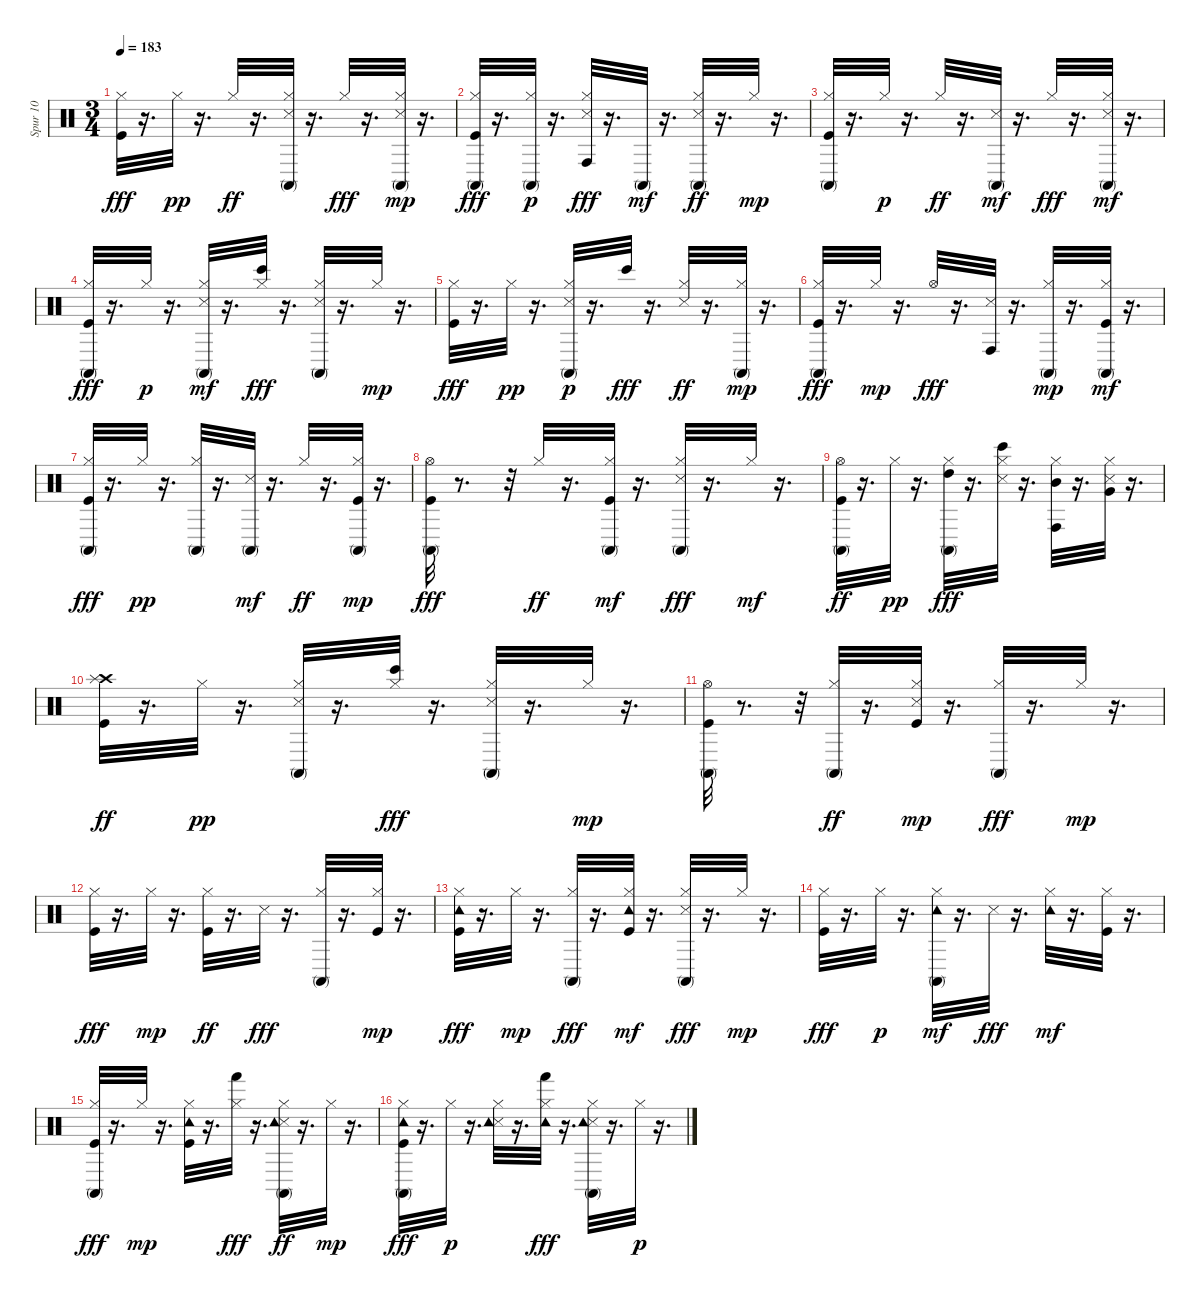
\track ("Spur 10" "Spur 10") {instrument percussion}
\staff {score}
\articulation defaults
\ts (3 4)
\tempo 183
\clef neutral
\ks c
("Kick (hit)" "Hi-Hat (closed)").32{dy fff} r.16{d} "Hi-Hat (closed)".32{dy pp} r.16{d} "Hi-Hat (closed)".32{dy ff} r.16{d} ("Snare (side stick) 3" "Hi-Hat (closed)" "Conga high (mute)").32 r.16{d} "Hi-Hat (closed)".32{dy fff} r.16{d} ("Snare (side stick) 3" "Hi-Hat (closed)" "Conga high (mute)").32{dy mp} r.16{d} |
("Kick (hit)" "Hi-Hat (closed)" "Conga high (mute)").32{dy fff} r.16{d} ("Hi-Hat (closed)" "Conga high (mute)").32{dy p} r.16{d} ("Snare (side stick) 3" "Hi-Hat (closed)" "Conga high (hit)").32{dy fff} r.16{d} "Conga high (mute)".32{dy mf} r.16{d} ("Snare (side stick) 3" "Hi-Hat (closed)" "Conga high (mute)").32{dy ff} r.16{d} "Hi-Hat (closed)".32{dy mp} r.16{d} |
("Kick (hit)" "Hi-Hat (closed)" "Conga high (mute)").32 r.16{d} "Hi-Hat (closed)".32{dy p} r.16{d} "Hi-Hat (closed)".32{dy ff} r.16{d} ("Snare (side stick) 3" "Conga high (mute)").32{dy mf} r.16{d} "Hi-Hat (closed)".32{dy fff} r.16{d} ("Snare (side stick) 3" "Hi-Hat (closed)" "Conga high (mute)").32{dy mf} r.16{d} |
("Kick (hit)" "Hi-Hat (closed)" "Conga high (mute)").32{dy fff} r.16{d} "Hi-Hat (closed)".32{dy p} r.16{d} ("Snare (side stick) 3" "Hi-Hat (closed)" "Conga high (mute)").32{dy mf} r.16{d} ("Hi-Hat (closed)" "Bongo High (hit)").32{dy fff} r.16{d} ("Snare (side stick) 3" "Hi-Hat (closed)" "Conga high (mute)").32 r.16{d} "Hi-Hat (closed)".32{dy mp} r.16{d} |
("Kick (hit)" "Hi-Hat (closed)").32{dy fff} r.16{d} "Hi-Hat (closed)".32{dy pp} r.16{d} ("Snare (side stick) 3" "Hi-Hat (closed)" "Conga high (mute)").32{dy p} r.16{d} "Bongo High (hit)".32{dy fff} r.16{d} ("Snare (side stick) 3" "Hi-Hat (closed)").32{dy ff} r.16{d} ("Hi-Hat (closed)" "Conga high (mute)").32{dy mp} r.16{d} |
("Kick (hit)" "Hi-Hat (closed)" "Conga high (mute)").32{dy fff} r.16{d} "Hi-Hat (closed)".32{dy mp} r.16{d} "Hi-Hat (open)".32{dy fff} r.16{d} ("Snare (side stick) 3" "Conga high (hit)").32 r.16{d} ("Hi-Hat (closed)" "Conga high (mute)").32{dy mp} r.16{d} ("Kick (hit)" "Hi-Hat (closed)" "Conga high (mute)").32{dy mf} r.16{d} |
("Kick (hit)" "Hi-Hat (closed)" "Conga high (mute)").32{dy fff} r.16{d} "Hi-Hat (closed)".32{dy pp} r.16{d} ("Hi-Hat (closed)" "Conga high (mute)").32 r.16{d} ("Snare (side stick) 3" "Conga high (mute)").32{dy mf} r.16{d} "Hi-Hat (closed)".32{dy ff} r.16{d} ("Kick (hit)" "Hi-Hat (closed)" "Conga high (mute)").32{dy mp} r.16{d} |
("Kick (hit)" "Hi-Hat (open)" "Conga high (mute)").32{dy fff} r.8{d} r.32 "Hi-Hat (closed)".32{dy ff} r.16{d} ("Kick (hit)" "Hi-Hat (closed)" "Conga high (mute)").32{dy mf} r.16{d} ("Snare (side stick) 3" "Hi-Hat (closed)" "Conga high (mute)").32{dy fff} r.16{d} "Hi-Hat (closed)".32{dy mf} r.16{d} |
("Kick (hit)" "Hi-Hat (open)" "Conga high (mute)").32{dy ff} r.16{d} "Hi-Hat (closed)".32{dy pp} r.16{d} ("Hi-Hat (closed)" "High Tom (hit)" "Conga high (mute)").32{dy fff} r.16{d} ("Snare (side stick) 3" "Hi-Hat (closed)" "Bongo High (hit)").32 r.16{d} ("Hi-Hat (closed)" "Mid Tom (hit)" "Conga high (hit)").32 r.16{d} ("Snare (side stick) 3" "Hi-Hat (closed)" "Very Low Tom (hit)").32 r.16{d} |
("Kick (hit)" "Crash high (hit)" "Splash (hit)").32{dy ff} r.16{d} "Hi-Hat (closed)".32{dy pp} r.16{d} ("Snare (side stick) 3" "Hi-Hat (closed)" "Conga high (mute)").32 r.16{d} ("Hi-Hat (closed)" "Bongo High (hit)").32{dy fff} r.16{d} ("Snare (side stick) 3" "Hi-Hat (closed)" "Conga high (mute)").32 r.16{d} "Hi-Hat (closed)".32{dy mp} r.16{d} |
("Kick (hit)" "Hi-Hat (open)" "Conga high (mute)").32 r.8{d} r.32 ("Hi-Hat (closed)" "Conga high (mute)").32{dy ff} r.16{d} ("Kick (hit)" "Snare (side stick) 3" "Hi-Hat (closed)").32{dy mp} r.16{d} ("Hi-Hat (closed)" "Conga high (mute)").32{dy fff} r.16{d} "Hi-Hat (closed)".32{dy mp} r.16{d} |
("Kick (hit)" "Hi-Hat (closed)").32{dy fff} r.16{d} "Hi-Hat (closed)".32{dy mp} r.16{d} ("Kick (hit)" "Hi-Hat (closed)").32{dy ff} r.16{d} "Snare (side stick) 3".32{dy fff} r.16{d} ("Hi-Hat (closed)" "Conga high (mute)").32 r.16{d} ("Kick (hit)" "Hi-Hat (closed)").32{dy mp} r.16{d} |
("Kick (hit)" "Hi-Hat (closed)" "Tambourine (hit)").32{dy fff} r.16{d} "Hi-Hat (closed)".32{dy mp} r.16{d} ("Hi-Hat (closed)" "Conga high (mute)").32{dy fff} r.16{d} ("Kick (hit)" "Hi-Hat (closed)" "Tambourine (hit)").32{dy mf} r.16{d} ("Snare (side stick) 3" "Hi-Hat (closed)" "Conga high (mute)").32{dy fff} r.16{d} "Hi-Hat (closed)".32{dy mp} r.16{d} |
("Kick (hit)" "Hi-Hat (closed)").32{dy fff} r.16{d} "Hi-Hat (closed)".32{dy p} r.16{d} ("Hi-Hat (closed)" "Tambourine (hit)" "Conga high (mute)").32{dy mf} r.16{d} "Snare (side stick) 3".32{dy fff} r.16{d} ("Hi-Hat (closed)" "Tambourine (hit)").32{dy mf} r.16{d} ("Kick (hit)" "Hi-Hat (closed)").32 r.16{d} |
("Kick (hit)" "Hi-Hat (closed)" "Conga high (mute)").32{dy fff} r.16{d} "Hi-Hat (closed)".32{dy mp} r.16{d} ("Kick (hit)" "Hi-Hat (closed)" "Tambourine (hit)").32 r.16{d} ("Hi-Hat (closed)" "Hand (hit)").32{dy fff} r.16{d} ("Snare (side stick) 3" "Hi-Hat (closed)" "Tambourine (hit)" "Conga high (mute)").32{dy ff} r.16{d} "Hi-Hat (closed)".32{dy mp} r.16{d} |
("Kick (hit)" "Hi-Hat (closed)" "Tambourine (hit)" "Conga high (mute)").32{dy fff} r.16{d} "Hi-Hat (closed)".32{dy p} r.16{d} ("Snare (side stick) 3" "Hi-Hat (closed)" "Tambourine (hit)").32 r.16{d} ("Hi-Hat (closed)" "Tambourine (hit)" "Hand (hit)").32{dy fff} r.16{d} ("Snare (side stick) 3" "Hi-Hat (closed)" "Tambourine (hit)" "Conga high (mute)").32 r.16{d} "Hi-Hat (closed)".32{dy p} r.16{d}
